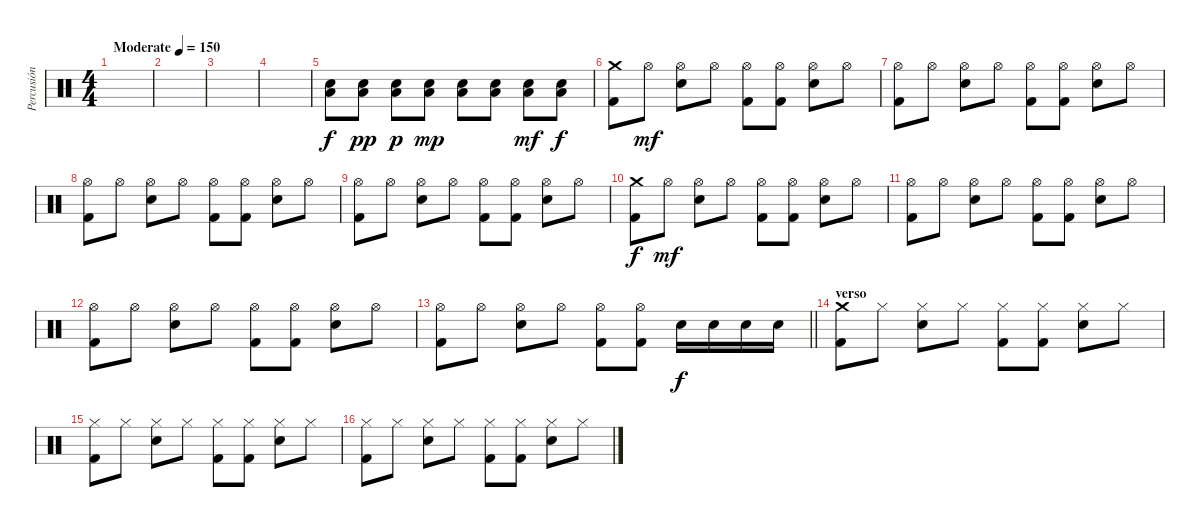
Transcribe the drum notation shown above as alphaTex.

\track ("Percusión" "Percusión") {instrument percussion}
\staff {score}
\articulation defaults
\ts (4 4)
\tempo (150 "Moderate")
\clef neutral
\ks c
|
|
|
|
("Electric Snare (hit)" "Low Floor Tom (hit)").8 ("Electric Snare (hit)" "Low Floor Tom (hit)").8{dy pp} ("Electric Snare (hit)" "Low Floor Tom (hit)").8{dy p} ("Electric Snare (hit)" "Low Floor Tom (hit)").8{dy mp} ("Electric Snare (hit)" "Low Floor Tom (hit)").8 ("Electric Snare (hit)" "Low Floor Tom (hit)").8 ("Electric Snare (hit)" "Low Floor Tom (hit)").8{dy mf} ("Electric Snare (hit)" "Low Floor Tom (hit)").8{dy f} |
("Crash medium (hit)" "Kick (hit) 2").8 "Hi-Hat (open)".8{dy mf} ("Hi-Hat (open)" "Electric Snare (hit)").8 "Hi-Hat (open)".8 ("Hi-Hat (open)" "Kick (hit) 2").8 ("Hi-Hat (open)" "Kick (hit) 2").8 ("Hi-Hat (open)" "Electric Snare (hit)").8 "Hi-Hat (open)".8 |
("Hi-Hat (open)" "Kick (hit) 2").8 "Hi-Hat (open)".8 ("Hi-Hat (open)" "Electric Snare (hit)").8 "Hi-Hat (open)".8 ("Hi-Hat (open)" "Kick (hit) 2").8 ("Hi-Hat (open)" "Kick (hit) 2").8 ("Hi-Hat (open)" "Electric Snare (hit)").8 "Hi-Hat (open)".8 |
("Hi-Hat (open)" "Kick (hit) 2").8 "Hi-Hat (open)".8 ("Hi-Hat (open)" "Electric Snare (hit)").8 "Hi-Hat (open)".8 ("Hi-Hat (open)" "Kick (hit) 2").8 ("Hi-Hat (open)" "Kick (hit) 2").8 ("Hi-Hat (open)" "Electric Snare (hit)").8 "Hi-Hat (open)".8 |
("Hi-Hat (open)" "Kick (hit) 2").8 "Hi-Hat (open)".8 ("Hi-Hat (open)" "Electric Snare (hit)").8 "Hi-Hat (open)".8 ("Hi-Hat (open)" "Kick (hit) 2").8 ("Hi-Hat (open)" "Kick (hit) 2").8 ("Hi-Hat (open)" "Electric Snare (hit)").8 "Hi-Hat (open)".8 |
("Crash medium (hit)" "Kick (hit) 2").8{dy f} "Hi-Hat (open)".8{dy mf} ("Hi-Hat (open)" "Electric Snare (hit)").8 "Hi-Hat (open)".8 ("Hi-Hat (open)" "Kick (hit) 2").8 ("Hi-Hat (open)" "Kick (hit) 2").8 ("Hi-Hat (open)" "Electric Snare (hit)").8 "Hi-Hat (open)".8 |
("Hi-Hat (open)" "Kick (hit) 2").8 "Hi-Hat (open)".8 ("Hi-Hat (open)" "Electric Snare (hit)").8 "Hi-Hat (open)".8 ("Hi-Hat (open)" "Kick (hit) 2").8 ("Hi-Hat (open)" "Kick (hit) 2").8 ("Hi-Hat (open)" "Electric Snare (hit)").8 "Hi-Hat (open)".8 |
("Hi-Hat (open)" "Kick (hit) 2").8 "Hi-Hat (open)".8 ("Hi-Hat (open)" "Electric Snare (hit)").8 "Hi-Hat (open)".8 ("Hi-Hat (open)" "Kick (hit) 2").8 ("Hi-Hat (open)" "Kick (hit) 2").8 ("Hi-Hat (open)" "Electric Snare (hit)").8 "Hi-Hat (open)".8 |
\barLineRight lightlight
("Hi-Hat (open)" "Kick (hit) 2").8 "Hi-Hat (open)".8 ("Hi-Hat (open)" "Electric Snare (hit)").8 "Hi-Hat (open)".8 ("Hi-Hat (open)" "Kick (hit) 2").8 ("Hi-Hat (open)" "Kick (hit) 2").8 "Electric Snare (hit)".16{dy f} "Electric Snare (hit)".16 "Electric Snare (hit)".16 "Electric Snare (hit)".16 |
\section ("" "verso")
("Crash medium (hit)" "Kick (hit) 2").8 "Hi-Hat (closed)".8 ("Hi-Hat (closed)" "Electric Snare (hit)").8 "Hi-Hat (closed)".8 ("Hi-Hat (closed)" "Kick (hit) 2").8 ("Hi-Hat (closed)" "Kick (hit) 2").8 ("Hi-Hat (closed)" "Electric Snare (hit)").8 "Hi-Hat (closed)".8 |
("Hi-Hat (closed)" "Kick (hit) 2").8 "Hi-Hat (closed)".8 ("Hi-Hat (closed)" "Electric Snare (hit)").8 "Hi-Hat (closed)".8 ("Hi-Hat (closed)" "Kick (hit) 2").8 ("Hi-Hat (closed)" "Kick (hit) 2").8 ("Hi-Hat (closed)" "Electric Snare (hit)").8 "Hi-Hat (closed)".8 |
("Hi-Hat (closed)" "Kick (hit) 2").8 "Hi-Hat (closed)".8 ("Hi-Hat (closed)" "Electric Snare (hit)").8 "Hi-Hat (closed)".8 ("Hi-Hat (closed)" "Kick (hit) 2").8 ("Hi-Hat (closed)" "Kick (hit) 2").8 ("Hi-Hat (closed)" "Electric Snare (hit)").8 "Hi-Hat (closed)".8
